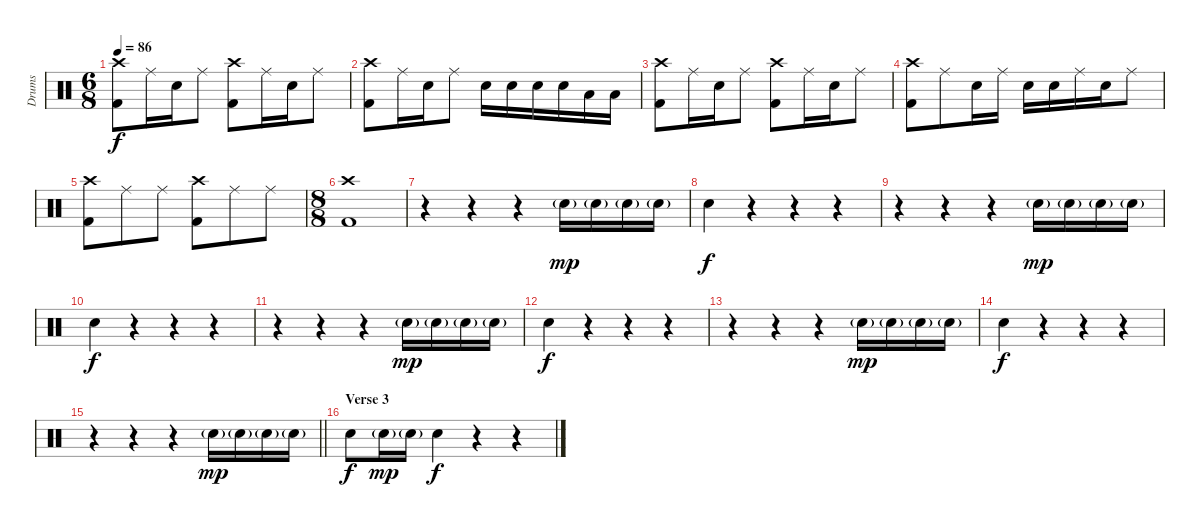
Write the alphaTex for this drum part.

\track ("Drums" "Drums") {instrument percussion}
\staff {score}
\articulation defaults
\ts (6 8)
\tempo 86
\clef neutral
\ks c
("Crash high (hit)" "Kick (hit) 2").8{dy f} "Ride (middle)".16 "Snare (hit) 2".16 "Ride (middle)".8 ("Crash high (hit)" "Kick (hit) 2").8 "Ride (middle)".16 "Snare (hit) 2".16 "Ride (middle)".8 |
("Crash high (hit)" "Kick (hit) 2").8 "Ride (middle)".16 "Snare (hit) 2".16 "Ride (middle)".8 "Snare (hit) 2".16 "Snare (hit) 2".16 "Snare (hit) 2".16 "Snare (hit) 2".16 "Low Tom (hit)".16 "Low Tom (hit)".16 |
("Crash high (hit)" "Kick (hit) 2").8 "Ride (middle)".16 "Snare (hit) 2".16 "Ride (middle)".8 ("Crash high (hit)" "Kick (hit) 2").8 "Ride (middle)".16 "Snare (hit) 2".16 "Ride (middle)".8 |
("Crash high (hit)" "Kick (hit) 2").8 "Ride (middle)".8 "Snare (hit) 2".16 "Ride (middle)".16 "Snare (hit) 2".16 "Snare (hit) 2".16 "Ride (middle)".16 "Snare (hit) 2".16 "Ride (middle)".8 |
("Crash high (hit)" "Kick (hit) 2").8 "Ride (middle)".8 "Ride (middle)".8 ("Crash high (hit)" "Kick (hit) 2").8 "Ride (middle)".8 "Ride (middle)".8 |
\ts (8 8)
("Crash high (hit)" "Kick (hit) 2").1 |
r.4 r.4 r.4 "Snare (hit) 2"{g}.16{dy mp} "Snare (hit) 2"{g}.16 "Snare (hit) 2"{g}.16 "Snare (hit) 2"{g}.16 |
"Snare (hit) 2".4{dy f} r.4 r.4 r.4 |
r.4 r.4 r.4 "Snare (hit) 2"{g}.16{dy mp} "Snare (hit) 2"{g}.16 "Snare (hit) 2"{g}.16 "Snare (hit) 2"{g}.16 |
"Snare (hit) 2".4{dy f} r.4 r.4 r.4 |
r.4 r.4 r.4 "Snare (hit) 2"{g}.16{dy mp} "Snare (hit) 2"{g}.16 "Snare (hit) 2"{g}.16 "Snare (hit) 2"{g}.16 |
"Snare (hit) 2".4{dy f} r.4 r.4 r.4 |
r.4 r.4 r.4 "Snare (hit) 2"{g}.16{dy mp} "Snare (hit) 2"{g}.16 "Snare (hit) 2"{g}.16 "Snare (hit) 2"{g}.16 |
"Snare (hit) 2".4{dy f} r.4 r.4 r.4 |
\barLineRight lightlight
r.4 r.4 r.4 "Snare (hit) 2"{g}.16{dy mp} "Snare (hit) 2"{g}.16 "Snare (hit) 2"{g}.16 "Snare (hit) 2"{g}.16 |
\section ("" "Verse 3")
"Snare (hit) 2".8{dy f} "Snare (hit) 2"{g}.16{dy mp} "Snare (hit) 2"{g}.16 "Snare (hit) 2".4{dy f} r.4 r.4
